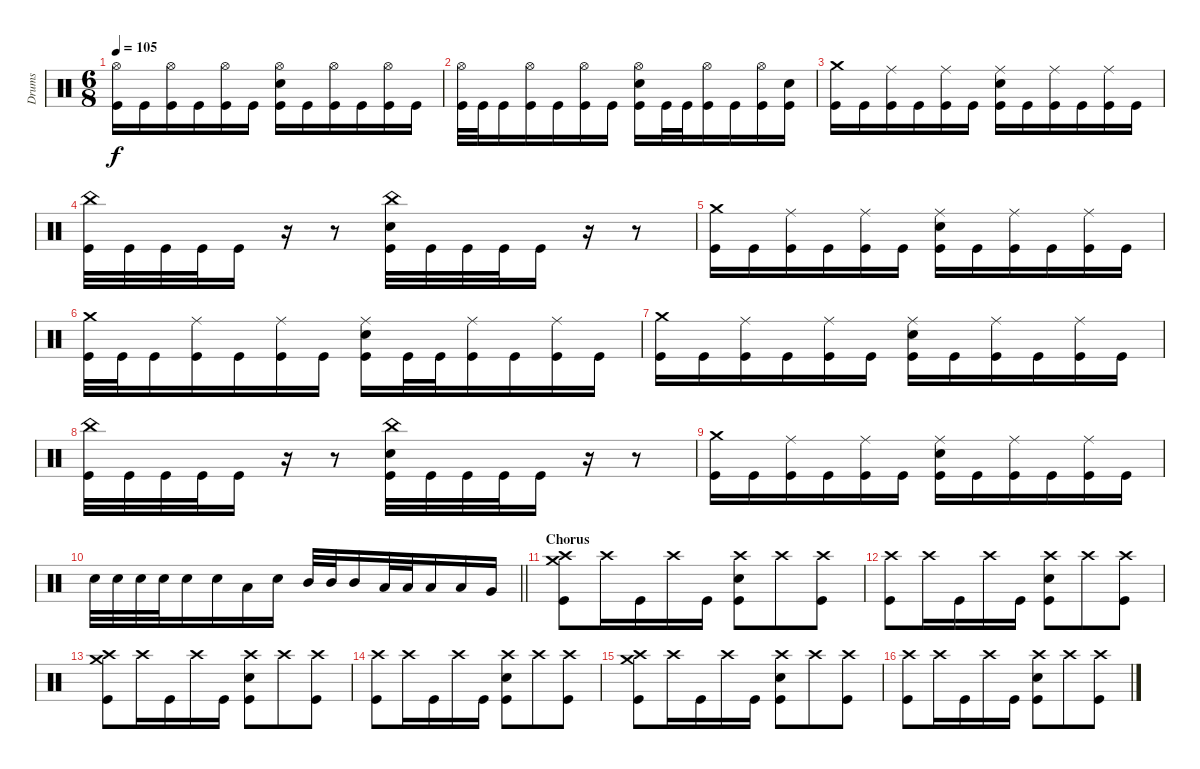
\track ("Drums" "Drums") {instrument percussion}
\staff {score}
\articulation defaults
\ts (6 8)
\tempo 105
\clef neutral
\ks c
("Hi-Hat (open)" "Kick (hit)").16{dy f} "Kick (hit)".16 ("Hi-Hat (open)" "Kick (hit)").16 "Kick (hit)".16 ("Hi-Hat (open)" "Kick (hit)").16 "Kick (hit)".16 ("Hi-Hat (open)" "Electric Snare (hit)" "Kick (hit)").16 "Kick (hit)".16 ("Hi-Hat (open)" "Kick (hit)").16 "Kick (hit)".16 ("Hi-Hat (open)" "Kick (hit)").16 "Kick (hit)".16 |
("Hi-Hat (open)" "Kick (hit)").32 "Kick (hit)".32 "Kick (hit)".16 ("Hi-Hat (open)" "Kick (hit)").16 "Kick (hit)".16 ("Hi-Hat (open)" "Kick (hit)").16 "Kick (hit)".16 ("Hi-Hat (open)" "Electric Snare (hit)" "Kick (hit)").16 "Kick (hit)".32 "Kick (hit)".32 ("Hi-Hat (open)" "Kick (hit)").16 "Kick (hit)".16 ("Hi-Hat (open)" "Kick (hit)").16 ("Electric Snare (hit)" "Kick (hit)").16 |
("Crash medium (hit)" "Kick (hit)").16 "Kick (hit)".16 ("Ride (middle)" "Kick (hit)").16 "Kick (hit)".16 ("Ride (middle)" "Kick (hit)").16 "Kick (hit)".16 ("Ride (middle)" "Electric Snare (hit)" "Kick (hit)").16 "Kick (hit)".16 ("Ride (middle)" "Kick (hit)").16 "Kick (hit)".16 ("Ride (middle)" "Kick (hit)").16 "Kick (hit)".16 |
("China (hit)" "Kick (hit)").32 "Kick (hit)".32 "Kick (hit)".32 "Kick (hit)".32 "Kick (hit)".16 r.16 r.8 ("China (hit)" "Electric Snare (hit)" "Kick (hit)").32 "Kick (hit)".32 "Kick (hit)".32 "Kick (hit)".32 "Kick (hit)".16 r.16 r.8 |
("Crash medium (hit)" "Kick (hit)").16 "Kick (hit)".16 ("Ride (middle)" "Kick (hit)").16 "Kick (hit)".16 ("Ride (middle)" "Kick (hit)").16 "Kick (hit)".16 ("Ride (middle)" "Electric Snare (hit)" "Kick (hit)").16 "Kick (hit)".16 ("Ride (middle)" "Kick (hit)").16 "Kick (hit)".16 ("Ride (middle)" "Kick (hit)").16 "Kick (hit)".16 |
("Crash medium (hit)" "Kick (hit)").32 "Kick (hit)".32 "Kick (hit)".16 ("Ride (middle)" "Kick (hit)").16 "Kick (hit)".16 ("Ride (middle)" "Kick (hit)").16 "Kick (hit)".16 ("Ride (middle)" "Electric Snare (hit)" "Kick (hit)").16 "Kick (hit)".32 "Kick (hit)".32 ("Ride (middle)" "Kick (hit)").16 "Kick (hit)".16 ("Ride (middle)" "Kick (hit)").16 "Kick (hit)".16 |
("Crash medium (hit)" "Kick (hit)").16 "Kick (hit)".16 ("Ride (middle)" "Kick (hit)").16 "Kick (hit)".16 ("Ride (middle)" "Kick (hit)").16 "Kick (hit)".16 ("Ride (middle)" "Electric Snare (hit)" "Kick (hit)").16 "Kick (hit)".16 ("Ride (middle)" "Kick (hit)").16 "Kick (hit)".16 ("Ride (middle)" "Kick (hit)").16 "Kick (hit)".16 |
("China (hit)" "Kick (hit)").32 "Kick (hit)".32 "Kick (hit)".32 "Kick (hit)".32 "Kick (hit)".16 r.16 r.8 ("China (hit)" "Electric Snare (hit)" "Kick (hit)").32 "Kick (hit)".32 "Kick (hit)".32 "Kick (hit)".32 "Kick (hit)".16 r.16 r.8 |
("Crash medium (hit)" "Kick (hit)").16 "Kick (hit)".16 ("Ride (middle)" "Kick (hit)").16 "Kick (hit)".16 ("Ride (middle)" "Kick (hit)").16 "Kick (hit)".16 ("Ride (middle)" "Electric Snare (hit)" "Kick (hit)").16 "Kick (hit)".16 ("Ride (middle)" "Kick (hit)").16 "Kick (hit)".16 ("Ride (middle)" "Kick (hit)").16 "Kick (hit)".16 |
\barLineRight lightlight "Electric Snare (hit)".32 "Electric Snare (hit)".32 "Electric Snare (hit)".32 "Electric Snare (hit)".32 "Electric Snare (hit)".16 "Electric Snare (hit)".16 "Low Floor Tom (hit)".16 "Electric Snare (hit)".16 "Mid Tom (hit)".32 "Mid Tom (hit)".32 "Mid Tom (hit)".16 "Low Tom (hit)".32 "Low Tom (hit)".32 "Low Tom (hit)".16 "Low Floor Tom (hit)".16 "Very Low Tom (hit)".16
|
\section ("" "Chorus")
("Crash medium (hit)" "Crash high (hit)" "Kick (hit)").8 "Crash high (hit)".16 "Kick (hit)".16 "Crash high (hit)".16 "Kick (hit)".16 ("Crash high (hit)" "Electric Snare (hit)" "Kick (hit)").8 "Crash high (hit)".8 ("Crash high (hit)" "Kick (hit)").8 |
("Crash high (hit)" "Kick (hit)").8 "Crash high (hit)".16 "Kick (hit)".16 "Crash high (hit)".16 "Kick (hit)".16 ("Crash high (hit)" "Electric Snare (hit)" "Kick (hit)").8 "Crash high (hit)".8 ("Crash high (hit)" "Kick (hit)").8 |
("Crash medium (hit)" "Crash high (hit)" "Kick (hit)").8 "Crash high (hit)".16 "Kick (hit)".16 "Crash high (hit)".16 "Kick (hit)".16 ("Crash high (hit)" "Electric Snare (hit)" "Kick (hit)").8 "Crash high (hit)".8 ("Crash high (hit)" "Kick (hit)").8 |
("Crash high (hit)" "Kick (hit)").8 "Crash high (hit)".16 "Kick (hit)".16 "Crash high (hit)".16 "Kick (hit)".16 ("Crash high (hit)" "Electric Snare (hit)" "Kick (hit)").8 "Crash high (hit)".8 ("Crash high (hit)" "Kick (hit)").8 |
("Crash medium (hit)" "Crash high (hit)" "Kick (hit)").8 "Crash high (hit)".16 "Kick (hit)".16 "Crash high (hit)".16 "Kick (hit)".16 ("Crash high (hit)" "Electric Snare (hit)" "Kick (hit)").8 "Crash high (hit)".8 ("Crash high (hit)" "Kick (hit)").8 |
("Crash high (hit)" "Kick (hit)").8 "Crash high (hit)".16 "Kick (hit)".16 "Crash high (hit)".16 "Kick (hit)".16 ("Crash high (hit)" "Electric Snare (hit)" "Kick (hit)").8 "Crash high (hit)".8 ("Crash high (hit)" "Kick (hit)").8
